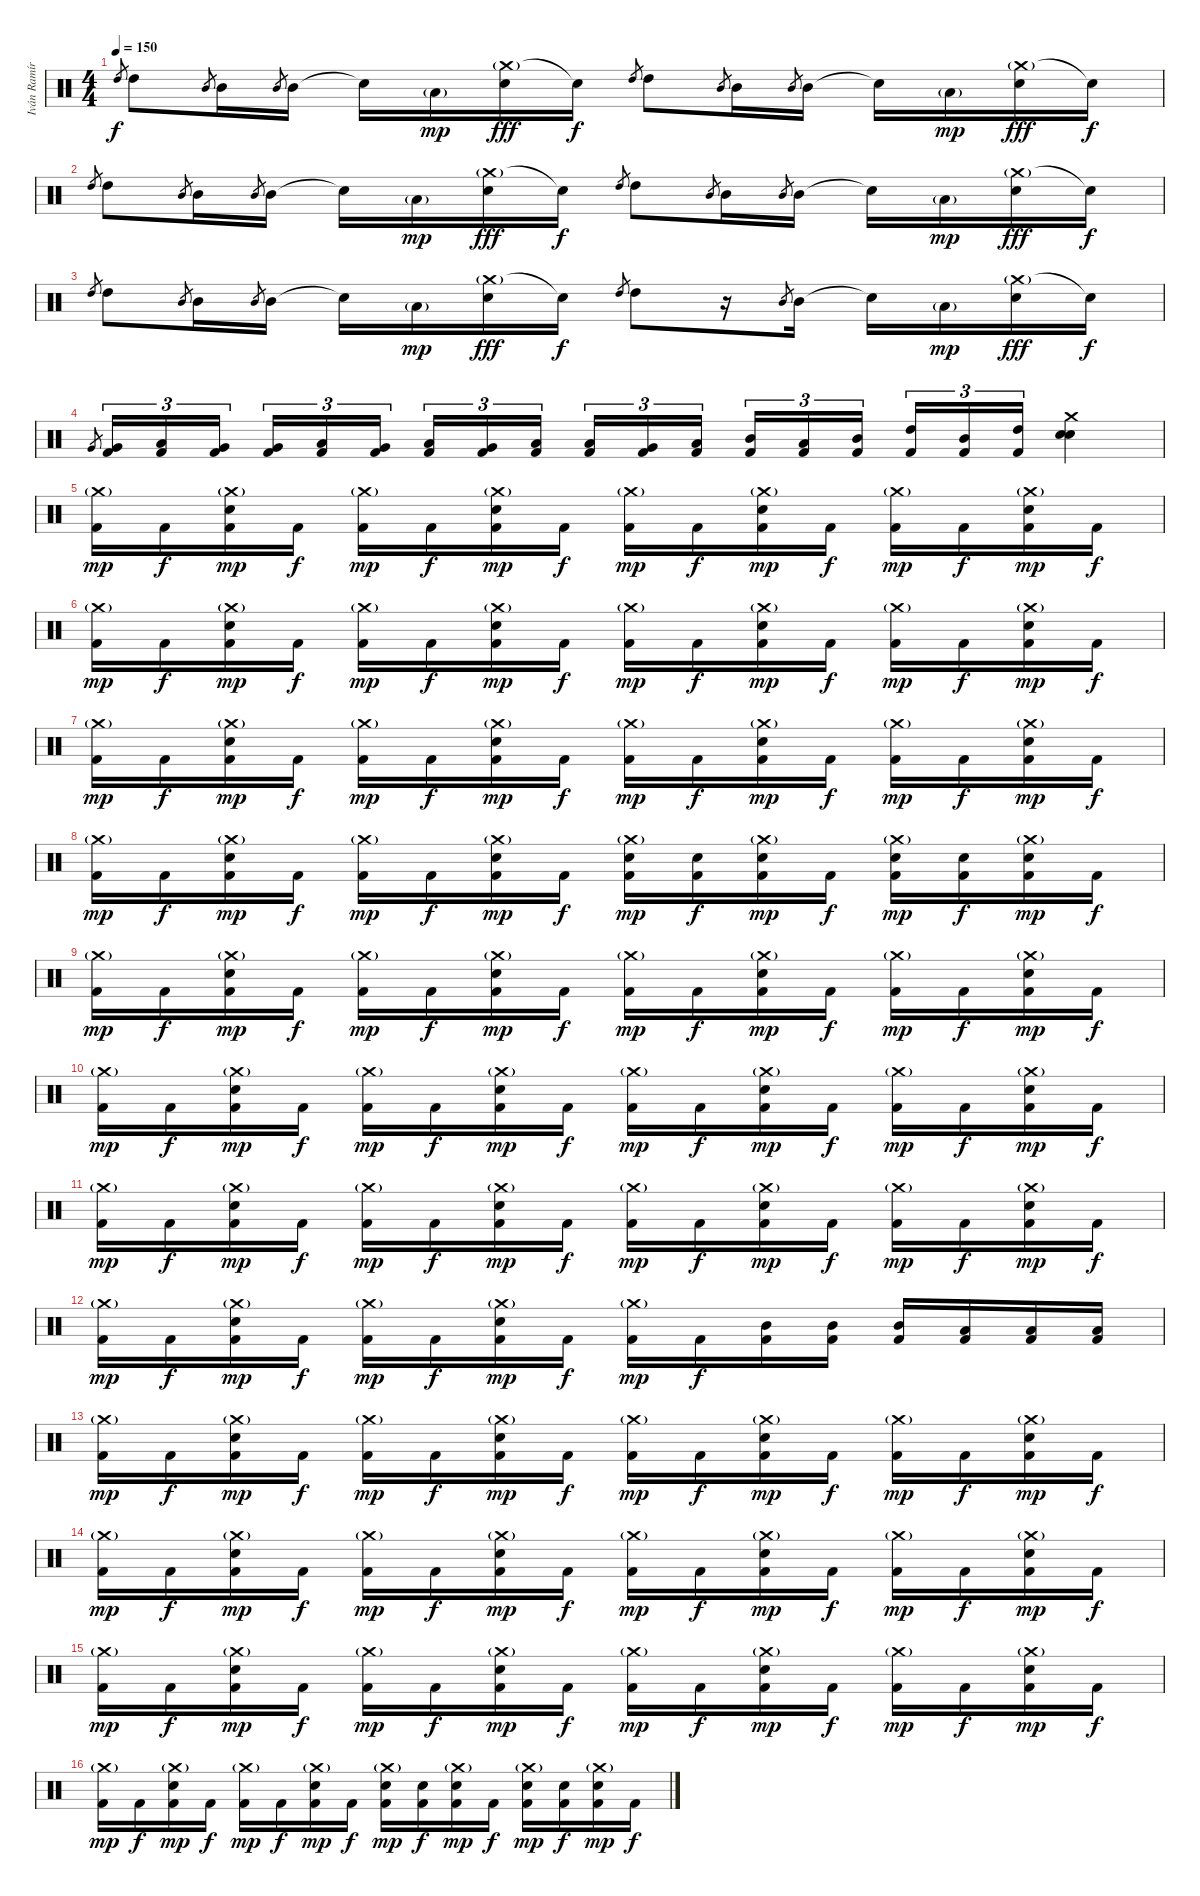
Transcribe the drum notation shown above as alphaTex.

\track ("Iván Ramírez" "Iván Ramír") {instrument percussion}
\staff {score}
\articulation defaults
\ts (4 4)
\tempo 150
\clef neutral
\ks c "High Tom (hit)".8{gr dy f} "High Tom (hit)".8 "Mid Tom (hit)".8{gr} "Mid Tom (hit)".16 "Mid Tom (hit)".8{gr} "Mid Tom (hit)".16 "Snare (hit)"{t}.16 "Low Tom (hit)"{g}.16{dy mp}
("Crash medium (hit)"{g} "Electric Snare (hit)").16{dy fff} "Snare (hit)"{t}.16{dy f} "High Tom (hit)".8{gr} "High Tom (hit)".8 "Mid Tom (hit)".8{gr} "Mid Tom (hit)".16 "Mid Tom (hit)".8{gr} "Mid Tom (hit)".16 "Snare (hit)"{t}.16 "Low Tom (hit)"{g}.16{dy mp} ("Crash medium (hit)"{g} "Electric Snare (hit)").16{dy fff} "Snare (hit)"{t}.16{dy f} |
"High Tom (hit)".8{gr} "High Tom (hit)".8 "Mid Tom (hit)".8{gr} "Mid Tom (hit)".16 "Mid Tom (hit)".8{gr} "Mid Tom (hit)".16 "Snare (hit)"{t}.16 "Low Tom (hit)"{g}.16{dy mp} ("Crash medium (hit)"{g} "Electric Snare (hit)").16{dy fff} "Snare (hit)"{t}.16{dy f} "High Tom (hit)".8{gr} "High Tom (hit)".8 "Mid Tom (hit)".8{gr} "Mid Tom (hit)".16 "Mid Tom (hit)".8{gr} "Mid Tom (hit)".16 "Snare (hit)"{t}.16 "Low Tom (hit)"{g}.16{dy mp} ("Crash medium (hit)"{g} "Electric Snare (hit)").16{dy fff} "Snare (hit)"{t}.16{dy f} |
"High Tom (hit)".8{gr} "High Tom (hit)".8 "Mid Tom (hit)".8{gr} "Mid Tom (hit)".16 "Mid Tom (hit)".8{gr} "Mid Tom (hit)".16 "Snare (hit)"{t}.16 "Low Tom (hit)"{g}.16{dy mp} ("Crash medium (hit)"{g} "Electric Snare (hit)").16{dy fff} "Snare (hit)"{t}.16{dy f} "High Tom (hit)".8{gr} "High Tom (hit)".8 r.16 "Mid Tom (hit)".8{gr} "Mid Tom (hit)".16 "Snare (hit)"{t}.16 "Low Tom (hit)"{g}.16{dy mp} ("Crash medium (hit)"{g} "Electric Snare (hit)").16{dy fff} "Snare (hit)"{t}.16{dy f} |
"Very Low Tom (hit)".8{gr} ("Very Low Tom (hit)" "Kick (hit) 2").16{tu (3 2)} ("Low Floor Tom (hit)" "Kick (hit) 2").16{tu (3 2)} ("Very Low Tom (hit)" "Kick (hit) 2").16{tu (3 2)} ("Very Low Tom (hit)" "Kick (hit) 2").16{tu (3 2)} ("Low Floor Tom (hit)" "Kick (hit) 2").16{tu (3 2)} ("Very Low Tom (hit)" "Kick (hit) 2").16{tu (3 2)} ("Low Tom (hit)" "Kick (hit) 2").16{tu (3 2)} ("Very Low Tom (hit)" "Kick (hit) 2").16{tu (3 2)} ("Low Tom (hit)" "Kick (hit) 2").16{tu (3 2)} ("Low Tom (hit)" "Kick (hit) 2").16{tu (3 2)} ("Very Low Tom (hit)" "Kick (hit) 2").16{tu (3 2)} ("Low Tom (hit)" "Kick (hit) 2").16{tu (3 2)} ("Mid Tom (hit)" "Kick (hit) 2").16{tu (3 2)} ("Low Tom (hit)" "Kick (hit) 2").16{tu (3 2)} ("Mid Tom (hit)" "Kick (hit) 2").16{tu (3 2)} ("High Tom (hit)" "Kick (hit) 2").16{tu (3 2)} ("Mid Tom (hit)" "Kick (hit) 2").16{tu (3 2)} ("High Tom (hit)" "Kick (hit) 2").16{tu (3 2)} ("Crash medium (hit)" "Electric Snare (hit)" "Snare (hit)").4 |
("Crash medium (hit)"{g} "Kick (hit) 2").16{dy mp} "Kick (hit) 2".16{dy f} ("Crash medium (hit)"{g} "Electric Snare (hit)" "Kick (hit) 2").16{dy mp} "Kick (hit) 2".16{dy f} ("Crash medium (hit)"{g} "Kick (hit) 2").16{dy mp} "Kick (hit) 2".16{dy f} ("Crash medium (hit)"{g} "Electric Snare (hit)" "Kick (hit) 2").16{dy mp} "Kick (hit) 2".16{dy f} ("Crash medium (hit)"{g} "Kick (hit) 2").16{dy mp} "Kick (hit) 2".16{dy f} ("Crash medium (hit)"{g} "Electric Snare (hit)" "Kick (hit) 2").16{dy mp} "Kick (hit) 2".16{dy f} ("Crash medium (hit)"{g} "Kick (hit) 2").16{dy mp} "Kick (hit) 2".16{dy f} ("Crash medium (hit)"{g} "Electric Snare (hit)" "Kick (hit) 2").16{dy mp} "Kick (hit) 2".16{dy f} |
("Crash medium (hit)"{g} "Kick (hit) 2").16{dy mp} "Kick (hit) 2".16{dy f} ("Crash medium (hit)"{g} "Electric Snare (hit)" "Kick (hit) 2").16{dy mp} "Kick (hit) 2".16{dy f} ("Crash medium (hit)"{g} "Kick (hit) 2").16{dy mp} "Kick (hit) 2".16{dy f} ("Crash medium (hit)"{g} "Electric Snare (hit)" "Kick (hit) 2").16{dy mp} "Kick (hit) 2".16{dy f} ("Crash medium (hit)"{g} "Kick (hit) 2").16{dy mp} "Kick (hit) 2".16{dy f} ("Crash medium (hit)"{g} "Electric Snare (hit)" "Kick (hit) 2").16{dy mp} "Kick (hit) 2".16{dy f} ("Crash medium (hit)"{g} "Kick (hit) 2").16{dy mp} "Kick (hit) 2".16{dy f} ("Crash medium (hit)"{g} "Electric Snare (hit)" "Kick (hit) 2").16{dy mp} "Kick (hit) 2".16{dy f} |
("Crash medium (hit)"{g} "Kick (hit) 2").16{dy mp} "Kick (hit) 2".16{dy f} ("Crash medium (hit)"{g} "Electric Snare (hit)" "Kick (hit) 2").16{dy mp} "Kick (hit) 2".16{dy f} ("Crash medium (hit)"{g} "Kick (hit) 2").16{dy mp} "Kick (hit) 2".16{dy f} ("Crash medium (hit)"{g} "Electric Snare (hit)" "Kick (hit) 2").16{dy mp} "Kick (hit) 2".16{dy f} ("Crash medium (hit)"{g} "Kick (hit) 2").16{dy mp} "Kick (hit) 2".16{dy f} ("Crash medium (hit)"{g} "Electric Snare (hit)" "Kick (hit) 2").16{dy mp} "Kick (hit) 2".16{dy f} ("Crash medium (hit)"{g} "Kick (hit) 2").16{dy mp} "Kick (hit) 2".16{dy f} ("Crash medium (hit)"{g} "Electric Snare (hit)" "Kick (hit) 2").16{dy mp} "Kick (hit) 2".16{dy f} |
("Crash medium (hit)"{g} "Kick (hit) 2").16{dy mp} "Kick (hit) 2".16{dy f} ("Crash medium (hit)"{g} "Electric Snare (hit)" "Kick (hit) 2").16{dy mp} "Kick (hit) 2".16{dy f} ("Crash medium (hit)"{g} "Kick (hit) 2").16{dy mp} "Kick (hit) 2".16{dy f} ("Crash medium (hit)"{g} "Electric Snare (hit)" "Kick (hit) 2").16{dy mp} "Kick (hit) 2".16{dy f} ("Crash medium (hit)"{g} "Electric Snare (hit)" "Kick (hit) 2").16{dy mp} ("Electric Snare (hit)" "Kick (hit) 2").16{dy f} ("Crash medium (hit)"{g} "Electric Snare (hit)" "Kick (hit) 2").16{dy mp} "Kick (hit) 2".16{dy f} ("Crash medium (hit)"{g} "Electric Snare (hit)" "Kick (hit) 2").16{dy mp} ("Electric Snare (hit)" "Kick (hit) 2").16{dy f} ("Crash medium (hit)"{g} "Electric Snare (hit)" "Kick (hit) 2").16{dy mp} "Kick (hit) 2".16{dy f} |
("Crash medium (hit)"{g} "Kick (hit) 2").16{dy mp} "Kick (hit) 2".16{dy f} ("Crash medium (hit)"{g} "Electric Snare (hit)" "Kick (hit) 2").16{dy mp} "Kick (hit) 2".16{dy f} ("Crash medium (hit)"{g} "Kick (hit) 2").16{dy mp} "Kick (hit) 2".16{dy f} ("Crash medium (hit)"{g} "Electric Snare (hit)" "Kick (hit) 2").16{dy mp} "Kick (hit) 2".16{dy f} ("Crash medium (hit)"{g} "Kick (hit) 2").16{dy mp} "Kick (hit) 2".16{dy f} ("Crash medium (hit)"{g} "Electric Snare (hit)" "Kick (hit) 2").16{dy mp} "Kick (hit) 2".16{dy f} ("Crash medium (hit)"{g} "Kick (hit) 2").16{dy mp} "Kick (hit) 2".16{dy f} ("Crash medium (hit)"{g} "Electric Snare (hit)" "Kick (hit) 2").16{dy mp} "Kick (hit) 2".16{dy f} |
("Crash medium (hit)"{g} "Kick (hit) 2").16{dy mp} "Kick (hit) 2".16{dy f} ("Crash medium (hit)"{g} "Electric Snare (hit)" "Kick (hit) 2").16{dy mp} "Kick (hit) 2".16{dy f} ("Crash medium (hit)"{g} "Kick (hit) 2").16{dy mp} "Kick (hit) 2".16{dy f} ("Crash medium (hit)"{g} "Electric Snare (hit)" "Kick (hit) 2").16{dy mp} "Kick (hit) 2".16{dy f} ("Crash medium (hit)"{g} "Kick (hit) 2").16{dy mp} "Kick (hit) 2".16{dy f} ("Crash medium (hit)"{g} "Electric Snare (hit)" "Kick (hit) 2").16{dy mp} "Kick (hit) 2".16{dy f} ("Crash medium (hit)"{g} "Kick (hit) 2").16{dy mp} "Kick (hit) 2".16{dy f} ("Crash medium (hit)"{g} "Electric Snare (hit)" "Kick (hit) 2").16{dy mp} "Kick (hit) 2".16{dy f} |
("Crash medium (hit)"{g} "Kick (hit) 2").16{dy mp} "Kick (hit) 2".16{dy f} ("Crash medium (hit)"{g} "Electric Snare (hit)" "Kick (hit) 2").16{dy mp} "Kick (hit) 2".16{dy f} ("Crash medium (hit)"{g} "Kick (hit) 2").16{dy mp} "Kick (hit) 2".16{dy f} ("Crash medium (hit)"{g} "Electric Snare (hit)" "Kick (hit) 2").16{dy mp} "Kick (hit) 2".16{dy f} ("Crash medium (hit)"{g} "Kick (hit) 2").16{dy mp} "Kick (hit) 2".16{dy f} ("Crash medium (hit)"{g} "Electric Snare (hit)" "Kick (hit) 2").16{dy mp} "Kick (hit) 2".16{dy f} ("Crash medium (hit)"{g} "Kick (hit) 2").16{dy mp} "Kick (hit) 2".16{dy f} ("Crash medium (hit)"{g} "Electric Snare (hit)" "Kick (hit) 2").16{dy mp} "Kick (hit) 2".16{dy f} |
("Crash medium (hit)"{g} "Kick (hit) 2").16{dy mp} "Kick (hit) 2".16{dy f} ("Crash medium (hit)"{g} "Electric Snare (hit)" "Kick (hit) 2").16{dy mp} "Kick (hit) 2".16{dy f} ("Crash medium (hit)"{g} "Kick (hit) 2").16{dy mp} "Kick (hit) 2".16{dy f} ("Crash medium (hit)"{g} "Electric Snare (hit)" "Kick (hit) 2").16{dy mp} "Kick (hit) 2".16{dy f} ("Crash medium (hit)"{g} "Kick (hit) 2").16{dy mp} "Kick (hit) 2".16{dy f} ("Mid Tom (hit)" "Kick (hit) 2").16 ("Mid Tom (hit)" "Kick (hit) 2").16 ("Mid Tom (hit)" "Kick (hit) 2").16 ("Low Tom (hit)" "Kick (hit) 2").16 ("Low Tom (hit)" "Kick (hit) 2").16 ("Low Tom (hit)" "Kick (hit) 2").16 |
("Crash medium (hit)"{g} "Kick (hit) 2").16{dy mp} "Kick (hit) 2".16{dy f} ("Crash medium (hit)"{g} "Electric Snare (hit)" "Kick (hit) 2").16{dy mp} "Kick (hit) 2".16{dy f} ("Crash medium (hit)"{g} "Kick (hit) 2").16{dy mp} "Kick (hit) 2".16{dy f} ("Crash medium (hit)"{g} "Electric Snare (hit)" "Kick (hit) 2").16{dy mp} "Kick (hit) 2".16{dy f} ("Crash medium (hit)"{g} "Kick (hit) 2").16{dy mp} "Kick (hit) 2".16{dy f} ("Crash medium (hit)"{g} "Electric Snare (hit)" "Kick (hit) 2").16{dy mp} "Kick (hit) 2".16{dy f} ("Crash medium (hit)"{g} "Kick (hit) 2").16{dy mp} "Kick (hit) 2".16{dy f} ("Crash medium (hit)"{g} "Electric Snare (hit)" "Kick (hit) 2").16{dy mp} "Kick (hit) 2".16{dy f} |
("Crash medium (hit)"{g} "Kick (hit) 2").16{dy mp} "Kick (hit) 2".16{dy f} ("Crash medium (hit)"{g} "Electric Snare (hit)" "Kick (hit) 2").16{dy mp} "Kick (hit) 2".16{dy f} ("Crash medium (hit)"{g} "Kick (hit) 2").16{dy mp} "Kick (hit) 2".16{dy f} ("Crash medium (hit)"{g} "Electric Snare (hit)" "Kick (hit) 2").16{dy mp} "Kick (hit) 2".16{dy f} ("Crash medium (hit)"{g} "Kick (hit) 2").16{dy mp} "Kick (hit) 2".16{dy f} ("Crash medium (hit)"{g} "Electric Snare (hit)" "Kick (hit) 2").16{dy mp} "Kick (hit) 2".16{dy f} ("Crash medium (hit)"{g} "Kick (hit) 2").16{dy mp} "Kick (hit) 2".16{dy f} ("Crash medium (hit)"{g} "Electric Snare (hit)" "Kick (hit) 2").16{dy mp} "Kick (hit) 2".16{dy f} |
("Crash medium (hit)"{g} "Kick (hit) 2").16{dy mp} "Kick (hit) 2".16{dy f} ("Crash medium (hit)"{g} "Electric Snare (hit)" "Kick (hit) 2").16{dy mp} "Kick (hit) 2".16{dy f} ("Crash medium (hit)"{g} "Kick (hit) 2").16{dy mp} "Kick (hit) 2".16{dy f} ("Crash medium (hit)"{g} "Electric Snare (hit)" "Kick (hit) 2").16{dy mp} "Kick (hit) 2".16{dy f} ("Crash medium (hit)"{g} "Kick (hit) 2").16{dy mp} "Kick (hit) 2".16{dy f} ("Crash medium (hit)"{g} "Electric Snare (hit)" "Kick (hit) 2").16{dy mp} "Kick (hit) 2".16{dy f} ("Crash medium (hit)"{g} "Kick (hit) 2").16{dy mp} "Kick (hit) 2".16{dy f} ("Crash medium (hit)"{g} "Electric Snare (hit)" "Kick (hit) 2").16{dy mp} "Kick (hit) 2".16{dy f} |
("Crash medium (hit)"{g} "Kick (hit) 2").16{dy mp} "Kick (hit) 2".16{dy f} ("Crash medium (hit)"{g} "Electric Snare (hit)" "Kick (hit) 2").16{dy mp} "Kick (hit) 2".16{dy f} ("Crash medium (hit)"{g} "Kick (hit) 2").16{dy mp} "Kick (hit) 2".16{dy f} ("Crash medium (hit)"{g} "Electric Snare (hit)" "Kick (hit) 2").16{dy mp} "Kick (hit) 2".16{dy f} ("Crash medium (hit)"{g} "Electric Snare (hit)" "Kick (hit) 2").16{dy mp} ("Electric Snare (hit)" "Kick (hit) 2").16{dy f} ("Crash medium (hit)"{g} "Electric Snare (hit)" "Kick (hit) 2").16{dy mp} "Kick (hit) 2".16{dy f} ("Crash medium (hit)"{g} "Electric Snare (hit)" "Kick (hit) 2").16{dy mp} ("Electric Snare (hit)" "Kick (hit) 2").16{dy f} ("Crash medium (hit)"{g} "Electric Snare (hit)" "Kick (hit) 2").16{dy mp} "Kick (hit) 2".16{dy f}
